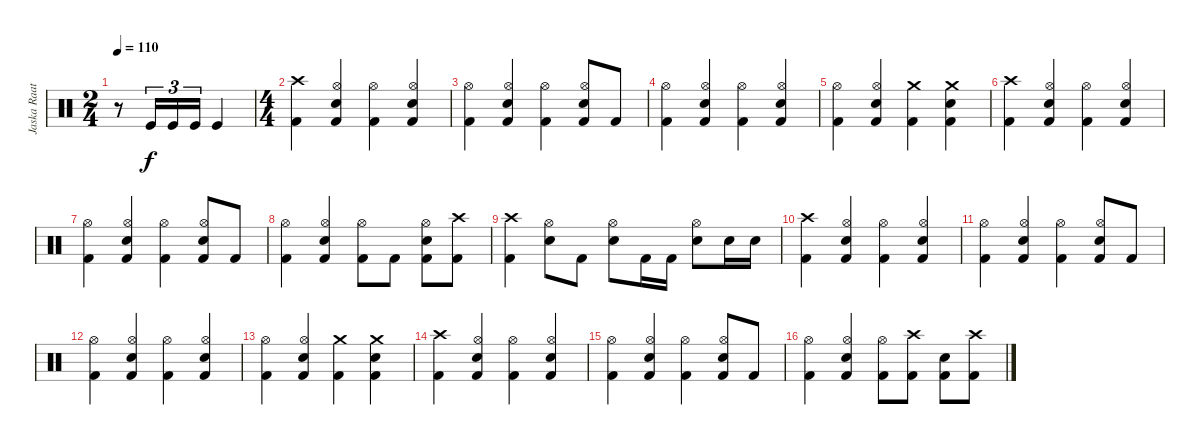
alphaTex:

\track ("Jaska Raatikainen" "Jaska Raat") {instrument percussion}
\staff {score}
\articulation defaults
\ts (2 4)
\tempo 110
\clef neutral
\ks c
r.8{dy f} "Kick (hit)".16{tu (3 2)} "Kick (hit)".16{tu (3 2)} "Kick (hit)".16{tu (3 2)} "Kick (hit)".4 |
\ts (4 4)
("Crash high (hit)" "Kick (hit) 2").4 ("Hi-Hat (open)" "Snare (hit) 2" "Kick (hit) 2").4 ("Hi-Hat (open)" "Kick (hit) 2").4 ("Hi-Hat (open)" "Snare (hit) 2" "Kick (hit) 2").4 |
("Hi-Hat (open)" "Kick (hit) 2").4 ("Hi-Hat (open)" "Snare (hit) 2" "Kick (hit) 2").4 ("Hi-Hat (open)" "Kick (hit) 2").4 ("Hi-Hat (open)" "Snare (hit) 2" "Kick (hit) 2").8 "Kick (hit) 2".8 |
("Hi-Hat (open)" "Kick (hit) 2").4 ("Hi-Hat (open)" "Snare (hit) 2" "Kick (hit) 2").4 ("Hi-Hat (open)" "Kick (hit) 2").4 ("Hi-Hat (open)" "Snare (hit) 2" "Kick (hit) 2").4 |
("Hi-Hat (open)" "Kick (hit) 2").4 ("Hi-Hat (open)" "Snare (hit) 2" "Kick (hit) 2").4 ("Crash medium (hit)" "Kick (hit) 2").4 ("Crash medium (hit)" "Snare (hit) 2" "Kick (hit) 2").4 |
("Crash high (hit)" "Kick (hit) 2").4 ("Hi-Hat (open)" "Snare (hit) 2" "Kick (hit) 2").4 ("Hi-Hat (open)" "Kick (hit) 2").4 ("Hi-Hat (open)" "Snare (hit) 2" "Kick (hit) 2").4 |
("Hi-Hat (open)" "Kick (hit) 2").4 ("Hi-Hat (open)" "Snare (hit) 2" "Kick (hit) 2").4 ("Hi-Hat (open)" "Kick (hit) 2").4 ("Hi-Hat (open)" "Snare (hit) 2" "Kick (hit) 2").8 "Kick (hit) 2".8 |
("Hi-Hat (open)" "Kick (hit) 2").4 ("Hi-Hat (open)" "Snare (hit) 2" "Kick (hit) 2").4 ("Hi-Hat (open)" "Kick (hit) 2").8 "Kick (hit) 2".8 ("Hi-Hat (open)" "Snare (hit) 2" "Kick (hit) 2").8 ("Crash high (hit)" "Kick (hit) 2").8 |
("Crash high (hit)" "Kick (hit) 2").4 ("Hi-Hat (open)" "Snare (hit) 2").8 "Kick (hit) 2".8 ("Hi-Hat (open)" "Snare (hit) 2").8 "Kick (hit) 2".16 "Kick (hit) 2".16 ("Hi-Hat (open)" "Snare (hit) 2").8 "Snare (hit) 2".16 "Snare (hit) 2".16 |
("Crash high (hit)" "Kick (hit) 2").4 ("Hi-Hat (open)" "Snare (hit) 2" "Kick (hit) 2").4 ("Hi-Hat (open)" "Kick (hit) 2").4 ("Hi-Hat (open)" "Snare (hit) 2" "Kick (hit) 2").4 |
("Hi-Hat (open)" "Kick (hit) 2").4 ("Hi-Hat (open)" "Snare (hit) 2" "Kick (hit) 2").4 ("Hi-Hat (open)" "Kick (hit) 2").4 ("Hi-Hat (open)" "Snare (hit) 2" "Kick (hit) 2").8 "Kick (hit) 2".8 |
("Hi-Hat (open)" "Kick (hit) 2").4 ("Hi-Hat (open)" "Snare (hit) 2" "Kick (hit) 2").4 ("Hi-Hat (open)" "Kick (hit) 2").4 ("Hi-Hat (open)" "Snare (hit) 2" "Kick (hit) 2").4 |
("Hi-Hat (open)" "Kick (hit) 2").4 ("Hi-Hat (open)" "Snare (hit) 2" "Kick (hit) 2").4 ("Crash medium (hit)" "Kick (hit) 2").4 ("Crash medium (hit)" "Snare (hit) 2" "Kick (hit) 2").4 |
("Crash high (hit)" "Kick (hit) 2").4 ("Hi-Hat (open)" "Snare (hit) 2" "Kick (hit) 2").4 ("Hi-Hat (open)" "Kick (hit) 2").4 ("Hi-Hat (open)" "Snare (hit) 2" "Kick (hit) 2").4 |
("Hi-Hat (open)" "Kick (hit) 2").4 ("Hi-Hat (open)" "Snare (hit) 2" "Kick (hit) 2").4 ("Hi-Hat (open)" "Kick (hit) 2").4 ("Hi-Hat (open)" "Snare (hit) 2" "Kick (hit) 2").8 "Kick (hit) 2".8 |
("Hi-Hat (open)" "Kick (hit) 2").4 ("Hi-Hat (open)" "Snare (hit) 2" "Kick (hit) 2").4 ("Hi-Hat (open)" "Kick (hit) 2").8 ("Crash high (hit)" "Kick (hit) 2").8 ("Snare (hit) 2" "Kick (hit) 2").8 ("Crash high (hit)" "Kick (hit) 2").8
